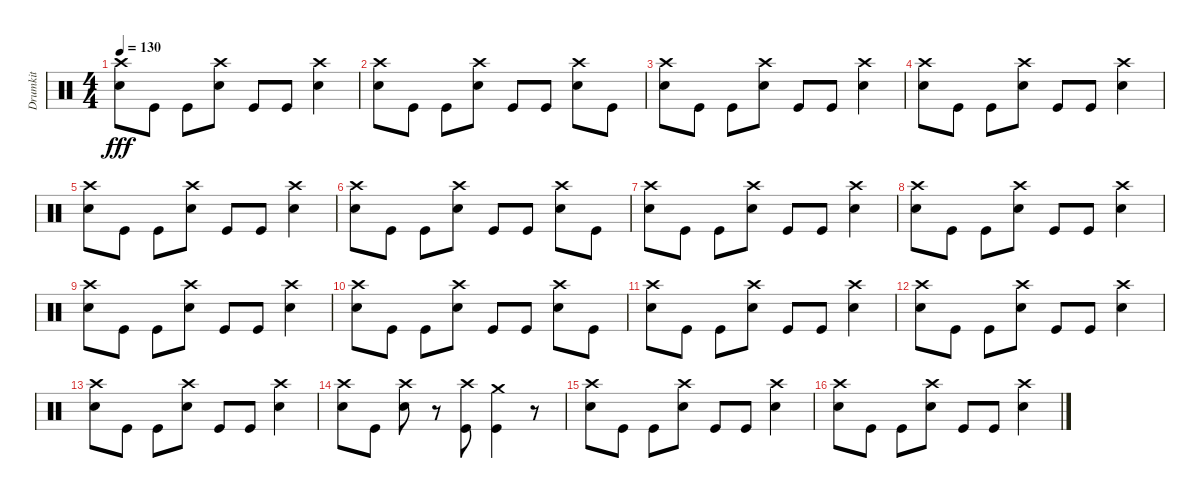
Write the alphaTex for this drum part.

\track ("Drumkit" "Drumkit") {instrument percussion}
\staff {score}
\articulation defaults
\ts (4 4)
\tempo 130
\clef neutral
\ks c
("Snare (hit) 2" "Crash high (hit)").8{dy fff} "Kick (hit)".8 "Kick (hit)".8 ("Snare (hit) 2" "Crash high (hit)").8 "Kick (hit)".8 "Kick (hit)".8 ("Snare (hit) 2" "Crash high (hit)").4 |
("Snare (hit) 2" "Crash high (hit)").8 "Kick (hit)".8 "Kick (hit)".8 ("Snare (hit) 2" "Crash high (hit)").8 "Kick (hit)".8 "Kick (hit)".8 ("Snare (hit) 2" "Crash high (hit)").8 "Kick (hit)".8 |
("Snare (hit) 2" "Crash high (hit)").8 "Kick (hit)".8 "Kick (hit)".8 ("Snare (hit) 2" "Crash high (hit)").8 "Kick (hit)".8 "Kick (hit)".8 ("Snare (hit) 2" "Crash high (hit)").4 |
("Snare (hit) 2" "Crash high (hit)").8 "Kick (hit)".8 "Kick (hit)".8 ("Snare (hit) 2" "Crash high (hit)").8 "Kick (hit)".8 "Kick (hit)".8 ("Snare (hit) 2" "Crash high (hit)").4 |
("Snare (hit) 2" "Crash high (hit)").8 "Kick (hit)".8 "Kick (hit)".8 ("Snare (hit) 2" "Crash high (hit)").8 "Kick (hit)".8 "Kick (hit)".8 ("Snare (hit) 2" "Crash high (hit)").4 |
("Snare (hit) 2" "Crash high (hit)").8 "Kick (hit)".8 "Kick (hit)".8 ("Snare (hit) 2" "Crash high (hit)").8 "Kick (hit)".8 "Kick (hit)".8 ("Snare (hit) 2" "Crash high (hit)").8 "Kick (hit)".8 |
("Snare (hit) 2" "Crash high (hit)").8 "Kick (hit)".8 "Kick (hit)".8 ("Snare (hit) 2" "Crash high (hit)").8 "Kick (hit)".8 "Kick (hit)".8 ("Snare (hit) 2" "Crash high (hit)").4 |
("Snare (hit) 2" "Crash high (hit)").8 "Kick (hit)".8 "Kick (hit)".8 ("Snare (hit) 2" "Crash high (hit)").8 "Kick (hit)".8 "Kick (hit)".8 ("Snare (hit) 2" "Crash high (hit)").4 |
("Snare (hit) 2" "Crash high (hit)").8 "Kick (hit)".8 "Kick (hit)".8 ("Snare (hit) 2" "Crash high (hit)").8 "Kick (hit)".8 "Kick (hit)".8 ("Snare (hit) 2" "Crash high (hit)").4 |
("Snare (hit) 2" "Crash high (hit)").8 "Kick (hit)".8 "Kick (hit)".8 ("Snare (hit) 2" "Crash high (hit)").8 "Kick (hit)".8 "Kick (hit)".8 ("Snare (hit) 2" "Crash high (hit)").8 "Kick (hit)".8 |
("Snare (hit) 2" "Crash high (hit)").8 "Kick (hit)".8 "Kick (hit)".8 ("Snare (hit) 2" "Crash high (hit)").8 "Kick (hit)".8 "Kick (hit)".8 ("Snare (hit) 2" "Crash high (hit)").4 |
("Snare (hit) 2" "Crash high (hit)").8 "Kick (hit)".8 "Kick (hit)".8 ("Snare (hit) 2" "Crash high (hit)").8 "Kick (hit)".8 "Kick (hit)".8 ("Snare (hit) 2" "Crash high (hit)").4 |
("Snare (hit) 2" "Crash high (hit)").8 "Kick (hit)".8 "Kick (hit)".8 ("Snare (hit) 2" "Crash high (hit)").8 "Kick (hit)".8 "Kick (hit)".8 ("Snare (hit) 2" "Crash high (hit)").4 |
("Snare (hit) 2" "Crash high (hit)").8 "Kick (hit)".8 ("Crash high (hit)" "Snare (hit) 2").8 r.8 ("Kick (hit)" "Crash high (hit)").8 ("Kick (hit)" "Crash medium (hit)").4 r.8 |
("Snare (hit) 2" "Crash high (hit)").8 "Kick (hit)".8 "Kick (hit)".8 ("Snare (hit) 2" "Crash high (hit)").8 "Kick (hit)".8 "Kick (hit)".8 ("Snare (hit) 2" "Crash high (hit)").4 |
("Snare (hit) 2" "Crash high (hit)").8 "Kick (hit)".8 "Kick (hit)".8 ("Snare (hit) 2" "Crash high (hit)").8 "Kick (hit)".8 "Kick (hit)".8 ("Snare (hit) 2" "Crash high (hit)").4
